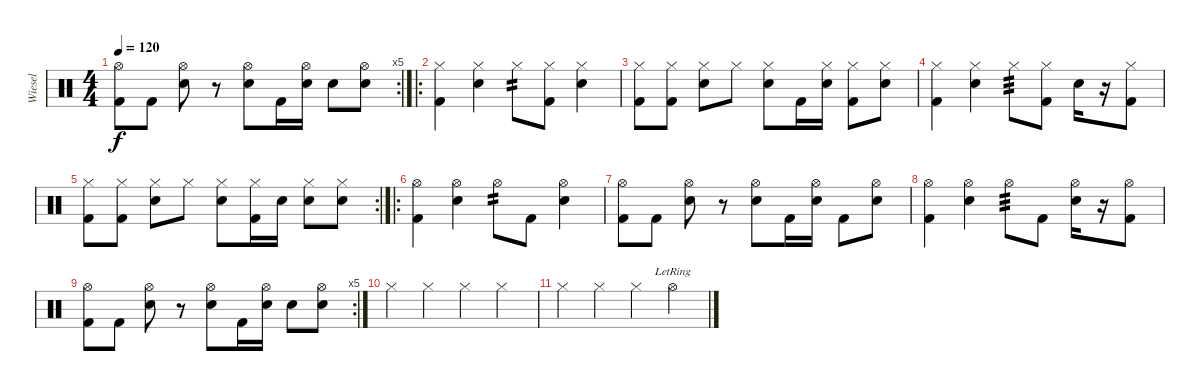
\track ("Wiesel" "Wiesel") {instrument percussion}
\staff {score}
\articulation defaults
\rc 5
\ts (4 4)
\tempo 120
\clef neutral
\ks c
("Kick (hit) 2" "Hi-Hat (open)").8{dy f} "Kick (hit) 2".8 ("Snare (hit) 2" "Hi-Hat (open)").8 r.8 ("Snare (hit) 2" "Hi-Hat (open)").8 "Kick (hit) 2".16 ("Snare (hit) 2" "Hi-Hat (open)").16 "Snare (hit) 2".8 ("Snare (hit) 2" "Hi-Hat (open)").8 |
\ro
("Kick (hit) 2" "Hi-Hat (closed)").4 ("Snare (hit) 2" "Hi-Hat (closed)").4 "Hi-Hat (closed)".8{tp 2} ("Kick (hit) 2" "Hi-Hat (closed)").8 ("Snare (hit) 2" "Hi-Hat (closed)").4 |
("Kick (hit) 2" "Hi-Hat (closed)").8 ("Kick (hit) 2" "Hi-Hat (closed)").8 ("Snare (hit) 2" "Hi-Hat (closed)").8 "Hi-Hat (closed)".8 ("Snare (hit) 2" "Hi-Hat (closed)").8 "Kick (hit) 2".16 ("Snare (hit) 2" "Hi-Hat (closed)").16 ("Kick (hit) 2" "Hi-Hat (closed)").8 ("Snare (hit) 2" "Hi-Hat (closed)").8 |
("Kick (hit) 2" "Hi-Hat (closed)").4 ("Snare (hit) 2" "Hi-Hat (closed)").4 "Hi-Hat (closed)".8{tp 3} ("Kick (hit) 2" "Hi-Hat (closed)").8 "Snare (hit) 2".16 r.16 ("Kick (hit) 2" "Hi-Hat (closed)").8 |
\rc 2
("Kick (hit) 2" "Hi-Hat (closed)").8 ("Kick (hit) 2" "Hi-Hat (closed)").8 ("Snare (hit) 2" "Hi-Hat (closed)").8 "Hi-Hat (closed)".8 ("Snare (hit) 2" "Hi-Hat (closed)").8 ("Kick (hit) 2" "Hi-Hat (closed)").16 "Snare (hit) 2".16 ("Snare (hit) 2" "Hi-Hat (closed)").8 ("Snare (hit) 2" "Hi-Hat (closed)").8 |
\ro
("Kick (hit) 2" "Hi-Hat (open)").4 ("Snare (hit) 2" "Hi-Hat (open)").4 "Hi-Hat (open)".8{tp 2} "Kick (hit) 2".8 ("Snare (hit) 2" "Hi-Hat (open)").4 |
("Kick (hit) 2" "Hi-Hat (open)").8 "Kick (hit) 2".8 ("Snare (hit) 2" "Hi-Hat (open)").8 r.8 ("Snare (hit) 2" "Hi-Hat (open)").8 "Kick (hit) 2".16 ("Snare (hit) 2" "Hi-Hat (open)").16 "Kick (hit) 2".8 ("Snare (hit) 2" "Hi-Hat (open)").8 |
("Kick (hit) 2" "Hi-Hat (open)").4 ("Snare (hit) 2" "Hi-Hat (open)").4 "Hi-Hat (open)".8{tp 3} "Kick (hit) 2".8 ("Snare (hit) 2" "Hi-Hat (open)").16 r.16 ("Kick (hit) 2" "Hi-Hat (open)").8 |
\rc 5
("Kick (hit) 2" "Hi-Hat (open)").8 "Kick (hit) 2".8 ("Snare (hit) 2" "Hi-Hat (open)").8 r.8 ("Snare (hit) 2" "Hi-Hat (open)").8 "Kick (hit) 2".16 ("Snare (hit) 2" "Hi-Hat (open)").16 "Snare (hit) 2".8 ("Snare (hit) 2" "Hi-Hat (open)").8 |
"Hi-Hat (closed)".4 "Hi-Hat (closed)".4 "Hi-Hat (closed)".4 "Hi-Hat (closed)".4 |
"Hi-Hat (closed)".4 "Hi-Hat (closed)".4 "Hi-Hat (closed)".4 "Hi-Hat (open)"{lr}.4
